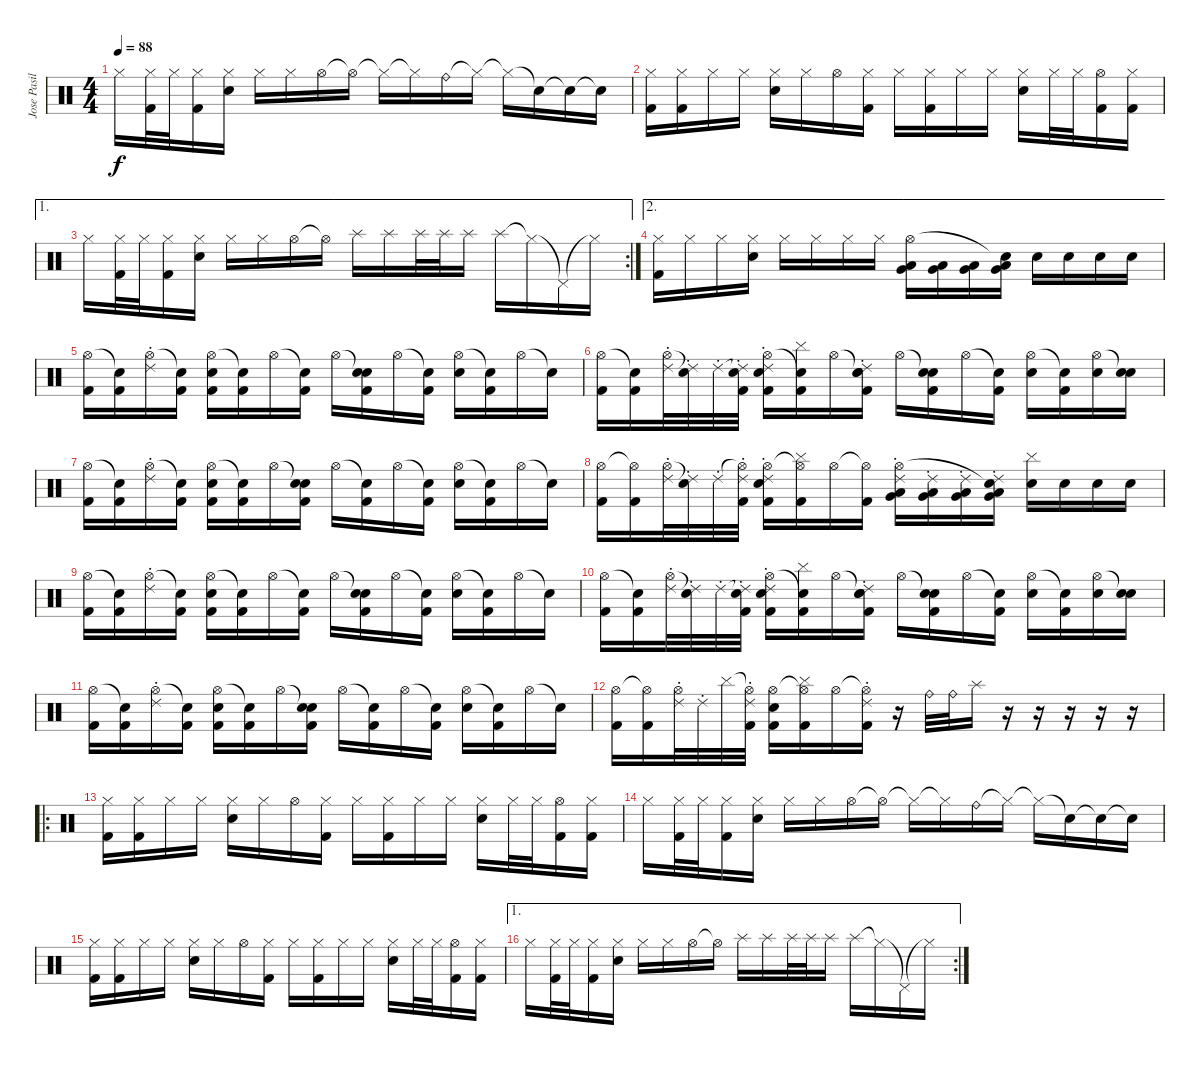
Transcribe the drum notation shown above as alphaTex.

\track ("Jose Pasillas/Dj Kilmore" "Jose Pasil") {instrument percussion}
\staff {score}
\articulation defaults
\ts (4 4)
\tempo 88
\clef neutral
\ks c "Hi-Hat (closed)".16{dy f}
("Hi-Hat (closed)" "Kick (hit) 2").32 "Hi-Hat (closed)".32 ("Hi-Hat (closed)" "Kick (hit) 2").16 ("Hi-Hat (closed)" "Electric Snare (hit)").16 "Hi-Hat (closed)".16 "Hi-Hat (closed)".16 "Hi-Hat (open)".16 "Hi-Hat (open)"{t}.16 "Hi-Hat (closed)"{t}.16 "Hi-Hat (closed)"{t}.16 "Ride (bell)".16 "Hi-Hat (closed)"{t}.16 "Hi-Hat (closed)"{t}.16 "Snare (hit)"{t}.16 "Snare (hit)"{t}.16 "Snare (hit)"{t}.16 |
("Hi-Hat (closed)" "Kick (hit) 2").16 ("Hi-Hat (closed)" "Kick (hit) 2").16 "Hi-Hat (closed)".16 "Hi-Hat (closed)".16 ("Hi-Hat (closed)" "Electric Snare (hit)").16 "Hi-Hat (closed)".16 "Hi-Hat (open)".16 ("Hi-Hat (closed)" "Kick (hit) 2").16 "Hi-Hat (closed)".16 ("Hi-Hat (closed)" "Kick (hit) 2").16 "Hi-Hat (closed)".16 "Hi-Hat (closed)".16 ("Hi-Hat (closed)" "Electric Snare (hit)").16 "Hi-Hat (closed)".32 "Hi-Hat (closed)".32 ("Hi-Hat (open)" "Kick (hit) 2").16 ("Hi-Hat (closed)" "Kick (hit) 2").16 |
\ae 1
\rc 2 "Hi-Hat (closed)".16
("Hi-Hat (closed)" "Kick (hit) 2").32 "Hi-Hat (closed)".32 ("Hi-Hat (closed)" "Kick (hit) 2").16 ("Hi-Hat (closed)" "Electric Snare (hit)").16 "Hi-Hat (closed)".16 "Hi-Hat (closed)".16 "Hi-Hat (open)".16 "Hi-Hat (open)"{t}.16 "Splash (hit)".16 "Splash (hit)".16 "Splash (hit)".32 "Splash (hit)".32 "Splash (hit)".16 "Splash (hit)".16 "Hi-Hat (closed)"{t}.16 "Pedal Hi-Hat (hit)"{t}.16 "Hi-Hat (closed)"{t}.16 |
\ae 2
("Hi-Hat (closed)" "Kick (hit) 2").16 "Hi-Hat (closed)".16 "Hi-Hat (closed)".16 ("Hi-Hat (closed)" "Electric Snare (hit)").16 "Hi-Hat (closed)".16 "Hi-Hat (closed)".16 "Hi-Hat (closed)".16 "Hi-Hat (closed)".16 ("Low Tom (hit)" "Very Low Tom (hit)" "Hi-Hat (open)").16 ("Low Tom (hit)" "Very Low Tom (hit)").16 ("Low Tom (hit)" "Very Low Tom (hit)").16 ("Low Tom (hit)" "Very Low Tom (hit)" "Snare (hit)"{t}).16 "Electric Snare (hit)".16 "Electric Snare (hit)".16 "Electric Snare (hit)".16 "Electric Snare (hit)".16 |
("Hi-Hat (open)" "Kick (hit) 2").16 ("Snare (hit)"{t} "Kick (hit) 2").16 ("Hi-Hat (open)" "Ride (choke) 2").16 ("Snare (hit)"{t} "Kick (hit) 2").16 ("Hi-Hat (open)" "Electric Snare (hit)" "Kick (hit) 2").16 ("Snare (hit)"{t} "Kick (hit) 2").16 "Hi-Hat (open)".16 ("Snare (hit)"{t} "Kick (hit) 2").16 "Hi-Hat (open)".16 ("Snare (hit)"{t} "Electric Snare (hit)" "Kick (hit) 2").16 "Hi-Hat (open)".16 ("Snare (hit)"{t} "Kick (hit) 2").16 ("Hi-Hat (open)" "Electric Snare (hit)").16 ("Snare (hit)"{t} "Kick (hit) 2").16 "Hi-Hat (open)".16 "Snare (hit)"{t}.16 |
("Hi-Hat (open)" "Kick (hit) 2").16 ("Snare (hit)"{t} "Kick (hit) 2").16 ("Hi-Hat (open)" "Ride (choke) 2").32 ("Snare (hit)"{t} "Ride (choke) 2").32 "Ride (choke) 2".32 ("Snare (hit)"{t} "Ride (choke) 2" "Kick (hit) 2").32 ("Hi-Hat (open)" "Electric Snare (hit)" "Ride (choke) 2" "Kick (hit) 2").16 ("Snare (hit)"{t} "Cymbal (hit)" "Kick (hit) 2").16 "Hi-Hat (open)".16 ("Snare (hit)"{t} "Electric Snare (hit)" "Ride (choke) 2" "Kick (hit) 2").16 "Hi-Hat (open)".16 ("Snare (hit)"{t} "Electric Snare (hit)" "Kick (hit) 2").16 "Hi-Hat (open)".16 ("Snare (hit)"{t} "Kick (hit) 2").16 ("Hi-Hat (open)" "Electric Snare (hit)").16 ("Snare (hit)"{t} "Kick (hit) 2").16 ("Hi-Hat (open)" "Electric Snare (hit)").16 ("Snare (hit)"{t} "Electric Snare (hit)").16 |
("Hi-Hat (open)" "Kick (hit) 2").16 ("Snare (hit)"{t} "Kick (hit) 2").16 ("Hi-Hat (open)" "Ride (choke) 2").16 ("Snare (hit)"{t} "Kick (hit) 2").16 ("Hi-Hat (open)" "Electric Snare (hit)" "Kick (hit) 2").16 ("Snare (hit)"{t} "Kick (hit) 2").16 "Hi-Hat (open)".16 ("Snare (hit)"{t} "Electric Snare (hit)" "Kick (hit) 2").16 "Hi-Hat (open)".16 ("Snare (hit)"{t} "Kick (hit) 2").16 "Hi-Hat (open)".16 ("Snare (hit)"{t} "Kick (hit) 2").16 ("Hi-Hat (open)" "Electric Snare (hit)").16 ("Snare (hit)"{t} "Kick (hit) 2").16 "Hi-Hat (open)".16 "Snare (hit)"{t}.16 |
("Hi-Hat (open)" "Kick (hit) 2").16 ("Hi-Hat (open)"{t} "Kick (hit) 2").16 ("Hi-Hat (open)" "Ride (choke) 2").32 ("Snare (hit)"{t} "Ride (choke) 2").32 "Ride (choke) 2".32 ("Hi-Hat (open)"{t} "Ride (choke) 2" "Kick (hit) 2").32 ("Hi-Hat (open)" "Electric Snare (hit)" "Ride (choke) 2" "Kick (hit) 2").16 ("Hi-Hat (open)"{t} "Cymbal (hit)" "Kick (hit) 2").16 "Hi-Hat (open)".16 ("Hi-Hat (open)"{t} "Kick (hit) 2").16 ("Low Tom (hit)" "Very Low Tom (hit)" "Ride (choke) 2" "Hi-Hat (open)").16 ("Low Tom (hit)" "Very Low Tom (hit)" "Ride (choke) 2").16 ("Low Tom (hit)" "Very Low Tom (hit)" "Ride (choke) 2").16 ("Low Tom (hit)" "Very Low Tom (hit)" "Ride (choke) 2" "Snare (hit)"{t}).16 ("Electric Snare (hit)" "Cymbal (hit)").16 "Electric Snare (hit)".16 "Electric Snare (hit)".16 "Electric Snare (hit)".16 |
("Hi-Hat (open)" "Kick (hit) 2").16 ("Snare (hit)"{t} "Kick (hit) 2").16 ("Hi-Hat (open)" "Ride (choke) 2").16 ("Snare (hit)"{t} "Kick (hit) 2").16 ("Hi-Hat (open)" "Electric Snare (hit)" "Kick (hit) 2").16 ("Snare (hit)"{t} "Kick (hit) 2").16 "Hi-Hat (open)".16 ("Snare (hit)"{t} "Kick (hit) 2").16 "Hi-Hat (open)".16 ("Snare (hit)"{t} "Electric Snare (hit)" "Kick (hit) 2").16 "Hi-Hat (open)".16 ("Snare (hit)"{t} "Kick (hit) 2").16 ("Hi-Hat (open)" "Electric Snare (hit)").16 ("Snare (hit)"{t} "Kick (hit) 2").16 "Hi-Hat (open)".16 "Snare (hit)"{t}.16 |
("Hi-Hat (open)" "Kick (hit) 2").16 ("Snare (hit)"{t} "Kick (hit) 2").16 ("Hi-Hat (open)" "Ride (choke) 2").32 ("Snare (hit)"{t} "Ride (choke) 2").32 "Ride (choke) 2".32 ("Snare (hit)"{t} "Ride (choke) 2" "Kick (hit) 2").32 ("Hi-Hat (open)" "Electric Snare (hit)" "Ride (choke) 2" "Kick (hit) 2").16 ("Snare (hit)"{t} "Cymbal (hit)" "Kick (hit) 2").16 "Hi-Hat (open)".16 ("Snare (hit)"{t} "Electric Snare (hit)" "Ride (choke) 2" "Kick (hit) 2").16 "Hi-Hat (open)".16 ("Snare (hit)"{t} "Electric Snare (hit)" "Kick (hit) 2").16 "Hi-Hat (open)".16 ("Snare (hit)"{t} "Kick (hit) 2").16 ("Hi-Hat (open)" "Electric Snare (hit)").16 ("Snare (hit)"{t} "Kick (hit) 2").16 ("Hi-Hat (open)" "Electric Snare (hit)").16 ("Snare (hit)"{t} "Electric Snare (hit)").16 |
("Hi-Hat (open)" "Kick (hit) 2").16 ("Snare (hit)"{t} "Kick (hit) 2").16 ("Hi-Hat (open)" "Ride (choke) 2").16 ("Snare (hit)"{t} "Kick (hit) 2").16 ("Hi-Hat (open)" "Electric Snare (hit)" "Kick (hit) 2").16 ("Snare (hit)"{t} "Kick (hit) 2").16 "Hi-Hat (open)".16 ("Snare (hit)"{t} "Electric Snare (hit)" "Kick (hit) 2").16 "Hi-Hat (open)".16 ("Snare (hit)"{t} "Kick (hit) 2").16 "Hi-Hat (open)".16 ("Snare (hit)"{t} "Kick (hit) 2").16 ("Hi-Hat (open)" "Electric Snare (hit)").16 ("Snare (hit)"{t} "Kick (hit) 2").16 "Hi-Hat (open)".16 "Snare (hit)"{t}.16 |
("Hi-Hat (open)" "Kick (hit) 2").16 ("Hi-Hat (open)"{t} "Kick (hit) 2").16 ("Hi-Hat (open)" "Ride (choke) 2").32 "Ride (choke) 2".32 "Cymbal (hit)".32 ("Hi-Hat (open)"{t} "Ride (choke) 2" "Kick (hit) 2").32 ("Hi-Hat (open)" "Electric Snare (hit)" "Kick (hit) 2").16 ("Hi-Hat (open)"{t} "Cymbal (hit)" "Kick (hit) 2").16 "Hi-Hat (open)".16 ("Hi-Hat (open)"{t} "Ride (choke) 2" "Kick (hit) 2").16 r.16 "Ride (bell)".32 "Ride (bell)".32 "Splash (hit)".16 r.16 r.16 r.16 r.16 r.16 |
\ro
("Hi-Hat (closed)" "Kick (hit) 2").16 ("Hi-Hat (closed)" "Kick (hit) 2").16 "Hi-Hat (closed)".16 "Hi-Hat (closed)".16 ("Hi-Hat (closed)" "Electric Snare (hit)").16 "Hi-Hat (closed)".16 "Hi-Hat (open)".16 ("Hi-Hat (closed)" "Kick (hit) 2").16 "Hi-Hat (closed)".16 ("Hi-Hat (closed)" "Kick (hit) 2").16 "Hi-Hat (closed)".16 "Hi-Hat (closed)".16 ("Hi-Hat (closed)" "Electric Snare (hit)").16 "Hi-Hat (closed)".32 "Hi-Hat (closed)".32 ("Hi-Hat (open)" "Kick (hit) 2").16 ("Hi-Hat (closed)" "Kick (hit) 2").16 |
"Hi-Hat (closed)".16 ("Hi-Hat (closed)" "Kick (hit) 2").32 "Hi-Hat (closed)".32 ("Hi-Hat (closed)" "Kick (hit) 2").16 ("Hi-Hat (closed)" "Electric Snare (hit)").16 "Hi-Hat (closed)".16 "Hi-Hat (closed)".16 "Hi-Hat (open)".16 "Hi-Hat (open)"{t}.16 "Hi-Hat (closed)"{t}.16 "Hi-Hat (closed)"{t}.16 "Ride (bell)".16 "Hi-Hat (closed)"{t}.16 "Hi-Hat (closed)"{t}.16 "Snare (hit)"{t}.16 "Snare (hit)"{t}.16 "Snare (hit)"{t}.16 |
("Hi-Hat (closed)" "Kick (hit) 2").16 ("Hi-Hat (closed)" "Kick (hit) 2").16 "Hi-Hat (closed)".16 "Hi-Hat (closed)".16 ("Hi-Hat (closed)" "Electric Snare (hit)").16 "Hi-Hat (closed)".16 "Hi-Hat (open)".16 ("Hi-Hat (closed)" "Kick (hit) 2").16 "Hi-Hat (closed)".16 ("Hi-Hat (closed)" "Kick (hit) 2").16 "Hi-Hat (closed)".16 "Hi-Hat (closed)".16 ("Hi-Hat (closed)" "Electric Snare (hit)").16 "Hi-Hat (closed)".32 "Hi-Hat (closed)".32 ("Hi-Hat (open)" "Kick (hit) 2").16 ("Hi-Hat (closed)" "Kick (hit) 2").16 |
\ae 1
\rc 2 "Hi-Hat (closed)".16
("Hi-Hat (closed)" "Kick (hit) 2").32 "Hi-Hat (closed)".32 ("Hi-Hat (closed)" "Kick (hit) 2").16 ("Hi-Hat (closed)" "Electric Snare (hit)").16 "Hi-Hat (closed)".16 "Hi-Hat (closed)".16 "Hi-Hat (open)".16 "Hi-Hat (open)"{t}.16 "Splash (hit)".16 "Splash (hit)".16 "Splash (hit)".32 "Splash (hit)".32 "Splash (hit)".16 "Splash (hit)".16 "Hi-Hat (closed)"{t}.16 "Pedal Hi-Hat (hit)"{t}.16 "Hi-Hat (closed)"{t}.16
